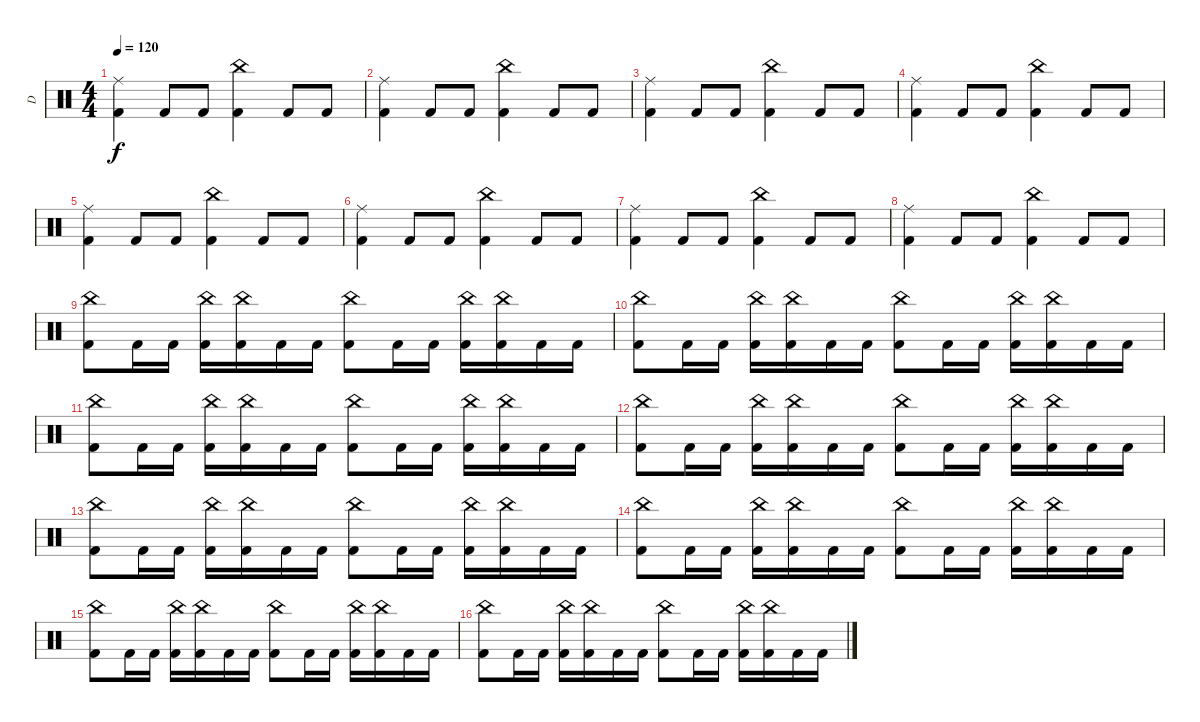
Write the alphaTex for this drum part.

\track ("D" "D") {instrument percussion}
\staff {score}
\articulation defaults
\ts (4 4)
\tempo 120
\clef neutral
\ks c
("Ride (middle)" "Kick (hit) 2").4{dy f} "Kick (hit) 2".8 "Kick (hit) 2".8 ("China (hit)" "Kick (hit) 2").4 "Kick (hit) 2".8 "Kick (hit) 2".8 |
("Ride (middle)" "Kick (hit) 2").4 "Kick (hit) 2".8 "Kick (hit) 2".8 ("China (hit)" "Kick (hit) 2").4 "Kick (hit) 2".8 "Kick (hit) 2".8 |
("Ride (middle)" "Kick (hit) 2").4 "Kick (hit) 2".8 "Kick (hit) 2".8 ("China (hit)" "Kick (hit) 2").4 "Kick (hit) 2".8 "Kick (hit) 2".8 |
("Ride (middle)" "Kick (hit) 2").4 "Kick (hit) 2".8 "Kick (hit) 2".8 ("China (hit)" "Kick (hit) 2").4 "Kick (hit) 2".8 "Kick (hit) 2".8 |
("Ride (middle)" "Kick (hit) 2").4 "Kick (hit) 2".8 "Kick (hit) 2".8 ("China (hit)" "Kick (hit) 2").4 "Kick (hit) 2".8 "Kick (hit) 2".8 |
("Ride (middle)" "Kick (hit) 2").4 "Kick (hit) 2".8 "Kick (hit) 2".8 ("China (hit)" "Kick (hit) 2").4 "Kick (hit) 2".8 "Kick (hit) 2".8 |
("Ride (middle)" "Kick (hit) 2").4 "Kick (hit) 2".8 "Kick (hit) 2".8 ("China (hit)" "Kick (hit) 2").4 "Kick (hit) 2".8 "Kick (hit) 2".8 |
("Ride (middle)" "Kick (hit) 2").4 "Kick (hit) 2".8 "Kick (hit) 2".8 ("China (hit)" "Kick (hit) 2").4 "Kick (hit) 2".8 "Kick (hit) 2".8 |
("China (hit)" "Kick (hit) 2").8 "Kick (hit) 2".16 "Kick (hit) 2".16 ("China (hit)" "Kick (hit) 2").16 ("China (hit)" "Kick (hit) 2").16 "Kick (hit) 2".16 "Kick (hit) 2".16 ("China (hit)" "Kick (hit) 2").8 "Kick (hit) 2".16 "Kick (hit) 2".16 ("China (hit)" "Kick (hit) 2").16 ("China (hit)" "Kick (hit) 2").16 "Kick (hit) 2".16 "Kick (hit) 2".16 |
("China (hit)" "Kick (hit) 2").8 "Kick (hit) 2".16 "Kick (hit) 2".16 ("China (hit)" "Kick (hit) 2").16 ("China (hit)" "Kick (hit) 2").16 "Kick (hit) 2".16 "Kick (hit) 2".16 ("China (hit)" "Kick (hit) 2").8 "Kick (hit) 2".16 "Kick (hit) 2".16 ("China (hit)" "Kick (hit) 2").16 ("China (hit)" "Kick (hit) 2").16 "Kick (hit) 2".16 "Kick (hit) 2".16 |
("China (hit)" "Kick (hit) 2").8 "Kick (hit) 2".16 "Kick (hit) 2".16 ("China (hit)" "Kick (hit) 2").16 ("China (hit)" "Kick (hit) 2").16 "Kick (hit) 2".16 "Kick (hit) 2".16 ("China (hit)" "Kick (hit) 2").8 "Kick (hit) 2".16 "Kick (hit) 2".16 ("China (hit)" "Kick (hit) 2").16 ("China (hit)" "Kick (hit) 2").16 "Kick (hit) 2".16 "Kick (hit) 2".16 |
("China (hit)" "Kick (hit) 2").8 "Kick (hit) 2".16 "Kick (hit) 2".16 ("China (hit)" "Kick (hit) 2").16 ("China (hit)" "Kick (hit) 2").16 "Kick (hit) 2".16 "Kick (hit) 2".16 ("China (hit)" "Kick (hit) 2").8 "Kick (hit) 2".16 "Kick (hit) 2".16 ("China (hit)" "Kick (hit) 2").16 ("China (hit)" "Kick (hit) 2").16 "Kick (hit) 2".16 "Kick (hit) 2".16 |
("China (hit)" "Kick (hit) 2").8 "Kick (hit) 2".16 "Kick (hit) 2".16 ("China (hit)" "Kick (hit) 2").16 ("China (hit)" "Kick (hit) 2").16 "Kick (hit) 2".16 "Kick (hit) 2".16 ("China (hit)" "Kick (hit) 2").8 "Kick (hit) 2".16 "Kick (hit) 2".16 ("China (hit)" "Kick (hit) 2").16 ("China (hit)" "Kick (hit) 2").16 "Kick (hit) 2".16 "Kick (hit) 2".16 |
("China (hit)" "Kick (hit) 2").8 "Kick (hit) 2".16 "Kick (hit) 2".16 ("China (hit)" "Kick (hit) 2").16 ("China (hit)" "Kick (hit) 2").16 "Kick (hit) 2".16 "Kick (hit) 2".16 ("China (hit)" "Kick (hit) 2").8 "Kick (hit) 2".16 "Kick (hit) 2".16 ("China (hit)" "Kick (hit) 2").16 ("China (hit)" "Kick (hit) 2").16 "Kick (hit) 2".16 "Kick (hit) 2".16 |
("China (hit)" "Kick (hit) 2").8 "Kick (hit) 2".16 "Kick (hit) 2".16 ("China (hit)" "Kick (hit) 2").16 ("China (hit)" "Kick (hit) 2").16 "Kick (hit) 2".16 "Kick (hit) 2".16 ("China (hit)" "Kick (hit) 2").8 "Kick (hit) 2".16 "Kick (hit) 2".16 ("China (hit)" "Kick (hit) 2").16 ("China (hit)" "Kick (hit) 2").16 "Kick (hit) 2".16 "Kick (hit) 2".16 |
("China (hit)" "Kick (hit) 2").8 "Kick (hit) 2".16 "Kick (hit) 2".16 ("China (hit)" "Kick (hit) 2").16 ("China (hit)" "Kick (hit) 2").16 "Kick (hit) 2".16 "Kick (hit) 2".16 ("China (hit)" "Kick (hit) 2").8 "Kick (hit) 2".16 "Kick (hit) 2".16 ("China (hit)" "Kick (hit) 2").16 ("China (hit)" "Kick (hit) 2").16 "Kick (hit) 2".16 "Kick (hit) 2".16
